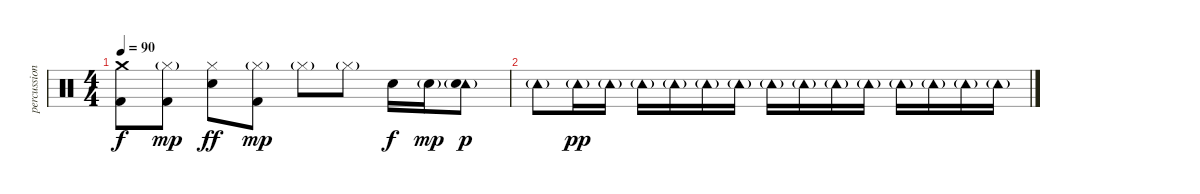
\track ("percussion" "percussion") {instrument percussion}
\staff {score}
\articulation defaults
\ts (4 4)
\tempo 90
\clef neutral
\ks c
("Crash medium (hit)" "Kick (hit) 2").8{dy f} ("Hi-Hat (closed)"{g} "Kick (hit) 2").8{dy mp} ("Hi-Hat (closed)" "Electric Snare (hit)").8{dy ff} ("Hi-Hat (closed)"{g} "Kick (hit) 2").8{dy mp} "Hi-Hat (closed)"{g}.8 "Hi-Hat (closed)"{g}.8 "Electric Snare (hit)".16{dy f} "Electric Snare (hit)"{g}.16{dy mp} ("Tambourine (hit)"{g} "Electric Snare (hit)").8{dy p} |
"Tambourine (hit)"{g}.8{volume 2} "Tambourine (hit)"{g}.16{dy pp} "Tambourine (hit)"{g}.16 "Tambourine (hit)"{g}.16 "Tambourine (hit)"{g}.16 "Tambourine (hit)"{g}.16 "Tambourine (hit)"{g}.16 "Tambourine (hit)"{g}.16 "Tambourine (hit)"{g}.16 "Tambourine (hit)"{g}.16 "Tambourine (hit)"{g}.16 "Tambourine (hit)"{g}.16 "Tambourine (hit)"{g}.16 "Tambourine (hit)"{g}.16 "Tambourine (hit)"{g}.16
